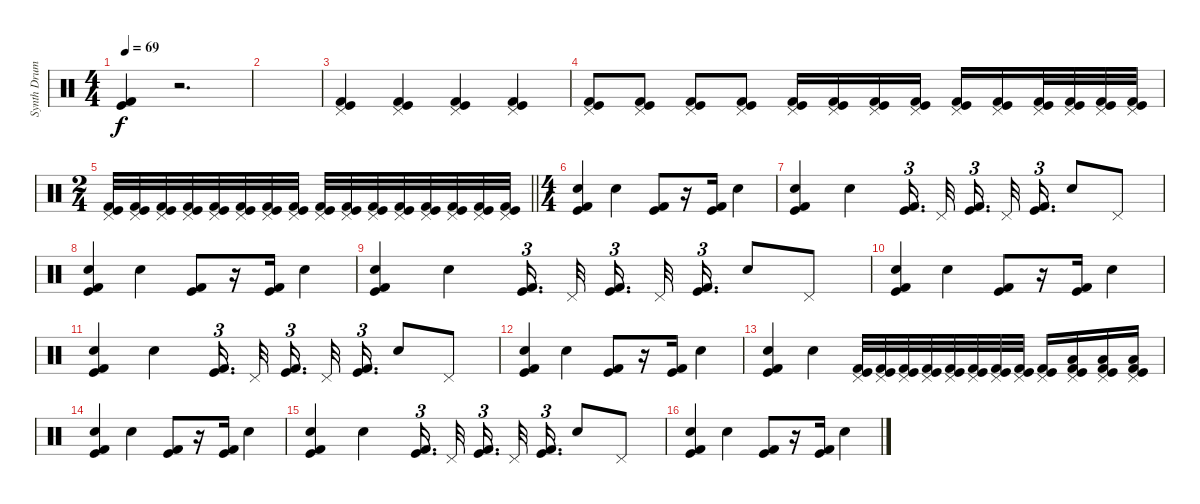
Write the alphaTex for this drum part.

\track ("Synth Drums" "Synth Drum") {instrument percussion}
\staff {score}
\articulation defaults
\ts (4 4)
\tempo 69
\clef neutral
\ks aminor
("Kick (hit) 2" "Kick (hit)").4{dy f} r.2{d} |
|
("Pedal Hi-Hat (hit)" "Kick (hit)" "Kick (hit) 2").4 ("Pedal Hi-Hat (hit)" "Kick (hit)" "Kick (hit) 2").4 ("Pedal Hi-Hat (hit)" "Kick (hit)" "Kick (hit) 2").4 ("Pedal Hi-Hat (hit)" "Kick (hit)" "Kick (hit) 2").4 |
("Pedal Hi-Hat (hit)" "Kick (hit)" "Kick (hit) 2").8 ("Pedal Hi-Hat (hit)" "Kick (hit)" "Kick (hit) 2").8 ("Pedal Hi-Hat (hit)" "Kick (hit)" "Kick (hit) 2").8 ("Pedal Hi-Hat (hit)" "Kick (hit)" "Kick (hit) 2").8 ("Pedal Hi-Hat (hit)" "Kick (hit)" "Kick (hit) 2").16 ("Pedal Hi-Hat (hit)" "Kick (hit)" "Kick (hit) 2").16 ("Pedal Hi-Hat (hit)" "Kick (hit)" "Kick (hit) 2").16 ("Pedal Hi-Hat (hit)" "Kick (hit)" "Kick (hit) 2").16 ("Pedal Hi-Hat (hit)" "Kick (hit)" "Kick (hit) 2").16 ("Pedal Hi-Hat (hit)" "Kick (hit)" "Kick (hit) 2").16 ("Pedal Hi-Hat (hit)" "Kick (hit)" "Kick (hit) 2").32 ("Pedal Hi-Hat (hit)" "Kick (hit)" "Kick (hit) 2").32 ("Pedal Hi-Hat (hit)" "Kick (hit)" "Kick (hit) 2").32 ("Pedal Hi-Hat (hit)" "Kick (hit)" "Kick (hit) 2").32 |
\ts (2 4)
\barLineRight lightlight
("Pedal Hi-Hat (hit)" "Kick (hit)" "Kick (hit) 2").32 ("Pedal Hi-Hat (hit)" "Kick (hit)" "Kick (hit) 2").32 ("Pedal Hi-Hat (hit)" "Kick (hit)" "Kick (hit) 2").32 ("Pedal Hi-Hat (hit)" "Kick (hit)" "Kick (hit) 2").32 ("Pedal Hi-Hat (hit)" "Kick (hit)" "Kick (hit) 2").32 ("Pedal Hi-Hat (hit)" "Kick (hit)" "Kick (hit) 2").32 ("Pedal Hi-Hat (hit)" "Kick (hit)" "Kick (hit) 2").32 ("Pedal Hi-Hat (hit)" "Kick (hit)" "Kick (hit) 2").32 ("Pedal Hi-Hat (hit)" "Kick (hit)" "Kick (hit) 2").32 ("Pedal Hi-Hat (hit)" "Kick (hit)" "Kick (hit) 2").32 ("Pedal Hi-Hat (hit)" "Kick (hit)" "Kick (hit) 2").32 ("Pedal Hi-Hat (hit)" "Kick (hit)" "Kick (hit) 2").32 ("Pedal Hi-Hat (hit)" "Kick (hit)" "Kick (hit) 2").32 ("Pedal Hi-Hat (hit)" "Kick (hit)" "Kick (hit) 2").32 ("Pedal Hi-Hat (hit)" "Kick (hit)" "Kick (hit) 2").32 ("Pedal Hi-Hat (hit)" "Kick (hit)" "Kick (hit) 2").32 |
\ts (4 4)
("Kick (hit) 2" "Kick (hit)" "Snare (hit) 2").4 "Electric Snare (hit)".4 ("Kick (hit) 2" "Kick (hit)").8 r.16 ("Kick (hit) 2" "Kick (hit)").16 "Electric Snare (hit)".4 |
("Kick (hit) 2" "Kick (hit)" "Snare (hit) 2").4 "Electric Snare (hit)".4 ("Kick (hit) 2" "Kick (hit)").16{d tu (3 2) beam splitsecondary} "Pedal Hi-Hat (hit)".32{beam splitsecondary} ("Kick (hit) 2" "Kick (hit)").16{d tu (3 2) beam splitsecondary} "Pedal Hi-Hat (hit)".32 ("Kick (hit) 2" "Kick (hit)").16{d tu (3 2)} "Electric Snare (hit)".8 "Pedal Hi-Hat (hit)".8 |
("Kick (hit) 2" "Kick (hit)" "Snare (hit) 2").4 "Electric Snare (hit)".4 ("Kick (hit) 2" "Kick (hit)").8 r.16 ("Kick (hit) 2" "Kick (hit)").16 "Electric Snare (hit)".4 |
("Kick (hit) 2" "Kick (hit)" "Snare (hit) 2").4 "Electric Snare (hit)".4 ("Kick (hit) 2" "Kick (hit)").16{d tu (3 2) beam splitsecondary} "Pedal Hi-Hat (hit)".32{beam splitsecondary} ("Kick (hit) 2" "Kick (hit)").16{d tu (3 2) beam splitsecondary} "Pedal Hi-Hat (hit)".32 ("Kick (hit) 2" "Kick (hit)").16{d tu (3 2)} "Electric Snare (hit)".8 "Pedal Hi-Hat (hit)".8 |
("Kick (hit) 2" "Kick (hit)" "Snare (hit) 2").4 "Electric Snare (hit)".4 ("Kick (hit) 2" "Kick (hit)").8 r.16 ("Kick (hit) 2" "Kick (hit)").16 "Electric Snare (hit)".4 |
("Kick (hit) 2" "Kick (hit)" "Snare (hit) 2").4 "Electric Snare (hit)".4 ("Kick (hit) 2" "Kick (hit)").16{d tu (3 2) beam splitsecondary} "Pedal Hi-Hat (hit)".32{beam splitsecondary} ("Kick (hit) 2" "Kick (hit)").16{d tu (3 2) beam splitsecondary} "Pedal Hi-Hat (hit)".32 ("Kick (hit) 2" "Kick (hit)").16{d tu (3 2)} "Electric Snare (hit)".8 "Pedal Hi-Hat (hit)".8 |
("Kick (hit) 2" "Kick (hit)" "Snare (hit) 2").4 "Electric Snare (hit)".4 ("Kick (hit) 2" "Kick (hit)").8 r.16 ("Kick (hit) 2" "Kick (hit)").16 "Electric Snare (hit)".4 |
("Kick (hit) 2" "Kick (hit)" "Snare (hit) 2").4 "Electric Snare (hit)".4 ("Pedal Hi-Hat (hit)" "Kick (hit)" "Kick (hit) 2").32 ("Pedal Hi-Hat (hit)" "Kick (hit)" "Kick (hit) 2").32 ("Pedal Hi-Hat (hit)" "Kick (hit)" "Kick (hit) 2").32 ("Pedal Hi-Hat (hit)" "Kick (hit)" "Kick (hit) 2").32 ("Pedal Hi-Hat (hit)" "Kick (hit)" "Kick (hit) 2").32 ("Pedal Hi-Hat (hit)" "Kick (hit)" "Kick (hit) 2").32 ("Pedal Hi-Hat (hit)" "Kick (hit)" "Kick (hit) 2").32 ("Pedal Hi-Hat (hit)" "Kick (hit)" "Kick (hit) 2").32 ("Pedal Hi-Hat (hit)" "Kick (hit)" "Kick (hit) 2").16 ("Pedal Hi-Hat (hit)" "Kick (hit)" "Kick (hit) 2" "Low Tom (hit)").16 ("Pedal Hi-Hat (hit)" "Kick (hit)" "Kick (hit) 2" "Low Tom (hit)").16 ("Pedal Hi-Hat (hit)" "Kick (hit)" "Kick (hit) 2" "Low Tom (hit)").16 |
("Kick (hit) 2" "Kick (hit)" "Snare (hit) 2").4 "Electric Snare (hit)".4 ("Kick (hit) 2" "Kick (hit)").8 r.16 ("Kick (hit) 2" "Kick (hit)").16 "Electric Snare (hit)".4 |
("Kick (hit) 2" "Kick (hit)" "Snare (hit) 2").4 "Electric Snare (hit)".4 ("Kick (hit) 2" "Kick (hit)").16{d tu (3 2) beam splitsecondary} "Pedal Hi-Hat (hit)".32{beam splitsecondary} ("Kick (hit) 2" "Kick (hit)").16{d tu (3 2) beam splitsecondary} "Pedal Hi-Hat (hit)".32 ("Kick (hit) 2" "Kick (hit)").16{d tu (3 2)} "Electric Snare (hit)".8 "Pedal Hi-Hat (hit)".8 |
("Kick (hit) 2" "Kick (hit)" "Snare (hit) 2").4 "Electric Snare (hit)".4 ("Kick (hit) 2" "Kick (hit)").8 r.16 ("Kick (hit) 2" "Kick (hit)").16 "Electric Snare (hit)".4
